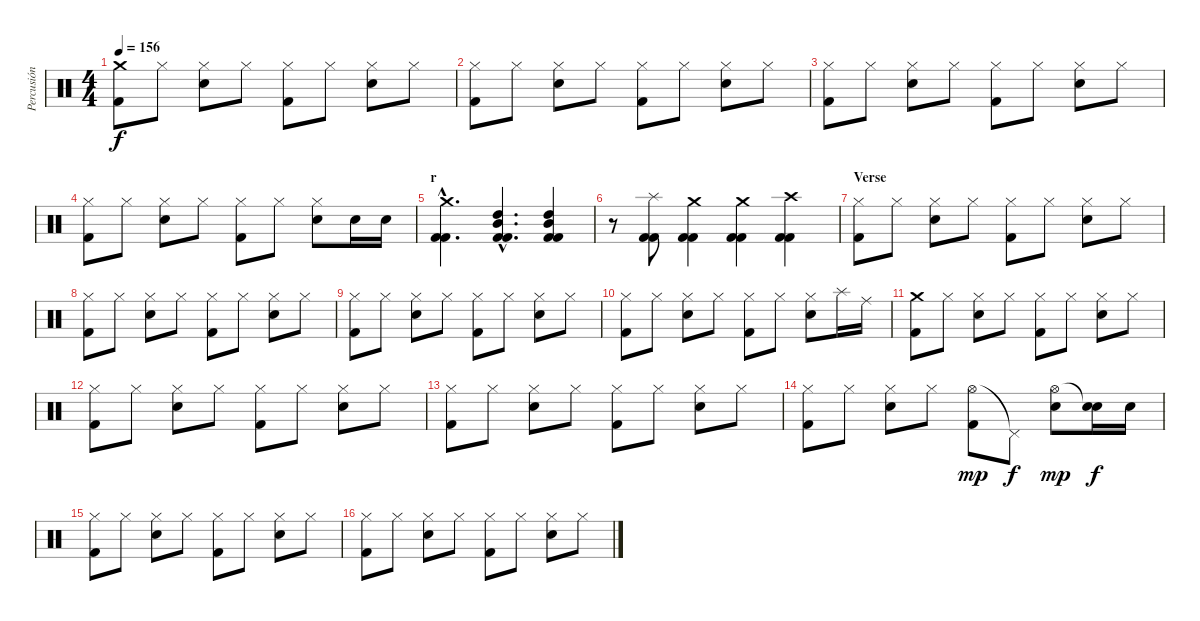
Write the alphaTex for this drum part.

\track ("Percusión" "Percusión") {instrument percussion}
\staff {score}
\articulation defaults
\ts (4 4)
\tempo 156
\clef neutral
\ks c
("Crash medium (hit)" "Kick (hit) 2").8{dy f} "Hi-Hat (closed)".8 ("Hi-Hat (closed)" "Electric Snare (hit)").8 "Hi-Hat (closed)".8 ("Hi-Hat (closed)" "Kick (hit) 2").8 "Hi-Hat (closed)".8 ("Hi-Hat (closed)" "Electric Snare (hit)").8 "Hi-Hat (closed)".8 |
("Hi-Hat (closed)" "Kick (hit) 2").8 "Hi-Hat (closed)".8 ("Hi-Hat (closed)" "Electric Snare (hit)").8 "Hi-Hat (closed)".8 ("Hi-Hat (closed)" "Kick (hit) 2").8 "Hi-Hat (closed)".8 ("Hi-Hat (closed)" "Electric Snare (hit)").8 "Hi-Hat (closed)".8 |
("Hi-Hat (closed)" "Kick (hit) 2").8 "Hi-Hat (closed)".8 ("Hi-Hat (closed)" "Electric Snare (hit)").8 "Hi-Hat (closed)".8 ("Hi-Hat (closed)" "Kick (hit) 2").8 "Hi-Hat (closed)".8 ("Hi-Hat (closed)" "Electric Snare (hit)").8 "Hi-Hat (closed)".8 |
("Hi-Hat (closed)" "Kick (hit) 2").8 "Hi-Hat (closed)".8 ("Hi-Hat (closed)" "Electric Snare (hit)").8 "Hi-Hat (closed)".8 ("Hi-Hat (closed)" "Kick (hit) 2").8 "Hi-Hat (closed)".8 ("Hi-Hat (closed)" "Electric Snare (hit)").8 "Electric Snare (hit)".16 "Electric Snare (hit)".16 |
\section ("" "r")
("Crash medium (hit)"{hac} "Kick (hit) 2"{hac} "Kick (hit) 2"{hac}).4{d} ("Mid Tom (hit)"{hac} "High Tom (hit)"{hac} "Kick (hit) 2"{hac} "Kick (hit) 2"{hac}).4{d} ("Mid Tom (hit)" "High Tom (hit)" "Kick (hit) 2" "Kick (hit) 2").4 |
r.8 ("Splash (hit)" "Kick (hit) 2" "Kick (hit) 2").8 ("Crash medium (hit)" "Kick (hit) 2" "Kick (hit) 2").4 ("Crash medium (hit)" "Kick (hit) 2" "Kick (hit) 2").4 ("Crash high (hit)" "Kick (hit) 2" "Kick (hit) 2").4 |
\section ("" "Verse")
("Hi-Hat (closed)" "Kick (hit) 2").8 "Hi-Hat (closed)".8 ("Hi-Hat (closed)" "Electric Snare (hit)").8 "Hi-Hat (closed)".8 ("Hi-Hat (closed)" "Kick (hit) 2").8 "Hi-Hat (closed)".8 ("Hi-Hat (closed)" "Electric Snare (hit)").8 "Hi-Hat (closed)".8 |
("Hi-Hat (closed)" "Kick (hit) 2").8 "Hi-Hat (closed)".8 ("Hi-Hat (closed)" "Electric Snare (hit)").8 "Hi-Hat (closed)".8 ("Hi-Hat (closed)" "Kick (hit) 2").8 "Hi-Hat (closed)".8 ("Hi-Hat (closed)" "Electric Snare (hit)").8 "Hi-Hat (closed)".8 |
("Hi-Hat (closed)" "Kick (hit) 2").8 "Hi-Hat (closed)".8 ("Hi-Hat (closed)" "Electric Snare (hit)").8 "Hi-Hat (closed)".8 ("Hi-Hat (closed)" "Kick (hit) 2").8 "Hi-Hat (closed)".8 ("Hi-Hat (closed)" "Electric Snare (hit)").8 "Hi-Hat (closed)".8 |
("Hi-Hat (closed)" "Kick (hit) 2").8 "Hi-Hat (closed)".8 ("Hi-Hat (closed)" "Electric Snare (hit)").8 "Hi-Hat (closed)".8 ("Hi-Hat (closed)" "Kick (hit) 2").8 "Hi-Hat (closed)".8 ("Hi-Hat (closed)" "Electric Snare (hit)").8 "Splash (hit)".16 "Ride (middle)".16 |
("Crash medium (hit)" "Kick (hit) 2").8 "Hi-Hat (closed)".8 ("Hi-Hat (closed)" "Electric Snare (hit)").8 "Hi-Hat (closed)".8 ("Hi-Hat (closed)" "Kick (hit) 2").8 "Hi-Hat (closed)".8 ("Hi-Hat (closed)" "Electric Snare (hit)").8 "Hi-Hat (closed)".8 |
("Hi-Hat (closed)" "Kick (hit) 2").8 "Hi-Hat (closed)".8 ("Hi-Hat (closed)" "Electric Snare (hit)").8 "Hi-Hat (closed)".8 ("Hi-Hat (closed)" "Kick (hit) 2").8 "Hi-Hat (closed)".8 ("Hi-Hat (closed)" "Electric Snare (hit)").8 "Hi-Hat (closed)".8 |
("Hi-Hat (closed)" "Kick (hit) 2").8 "Hi-Hat (closed)".8 ("Hi-Hat (closed)" "Electric Snare (hit)").8 "Hi-Hat (closed)".8 ("Hi-Hat (closed)" "Kick (hit) 2").8 "Hi-Hat (closed)".8 ("Hi-Hat (closed)" "Electric Snare (hit)").8 "Hi-Hat (closed)".8 |
("Hi-Hat (closed)" "Kick (hit) 2").8 "Hi-Hat (closed)".8 ("Hi-Hat (closed)" "Electric Snare (hit)").8 "Hi-Hat (closed)".8 ("Hi-Hat (open)" "Kick (hit) 2").8{dy mp} "Pedal Hi-Hat (hit)"{t}.8{dy f} ("Hi-Hat (open)" "Electric Snare (hit)").8{dy mp} ("Snare (hit)"{t} "Electric Snare (hit)").16{dy f} "Electric Snare (hit)".16 |
("Hi-Hat (closed)" "Kick (hit) 2").8 "Hi-Hat (closed)".8 ("Hi-Hat (closed)" "Electric Snare (hit)").8 "Hi-Hat (closed)".8 ("Hi-Hat (closed)" "Kick (hit) 2").8 "Hi-Hat (closed)".8 ("Hi-Hat (closed)" "Electric Snare (hit)").8 "Hi-Hat (closed)".8 |
("Hi-Hat (closed)" "Kick (hit) 2").8 "Hi-Hat (closed)".8 ("Hi-Hat (closed)" "Electric Snare (hit)").8 "Hi-Hat (closed)".8 ("Hi-Hat (closed)" "Kick (hit) 2").8 "Hi-Hat (closed)".8 ("Hi-Hat (closed)" "Electric Snare (hit)").8 "Hi-Hat (closed)".8
